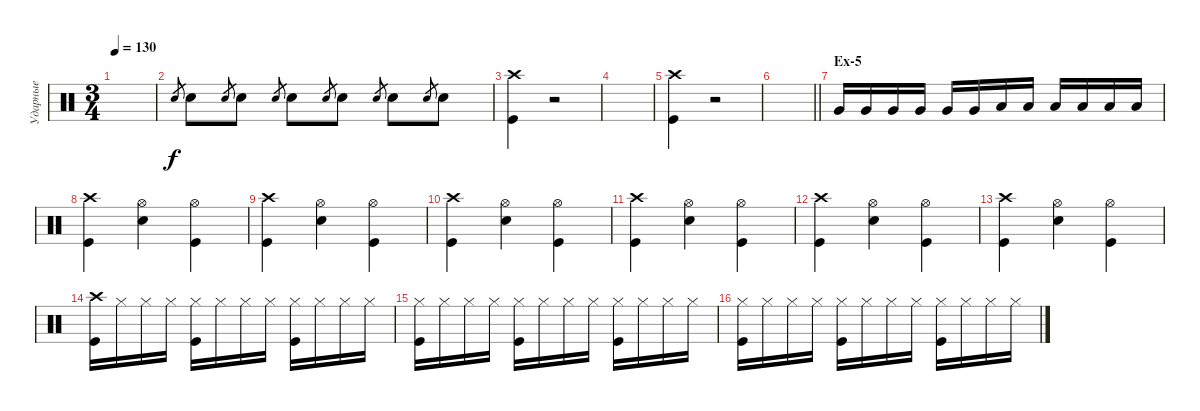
\track ("Ударные" "Ударные") {instrument percussion}
\staff {score}
\articulation defaults
\ts (3 4)
\tempo 130
\clef neutral
\ks c
|
"Snare (hit) 2".8{gr} "Snare (hit) 2".8{volume 9} "Snare (hit) 2".8{gr} "Snare (hit) 2".8{volume 16} "Snare (hit) 2".8{gr} "Snare (hit) 2".8 "Snare (hit) 2".8{gr} "Snare (hit) 2".8 "Snare (hit) 2".8{gr} "Snare (hit) 2".8 "Snare (hit) 2".8{gr} "Snare (hit) 2".8 |
("Crash high (hit)" "Kick (hit)").4 r.2 |
|
("Kick (hit)" "Crash high (hit)").4 r.2 |
\barLineRight lightlight
|
\section ("" "Ex-5")
"Very Low Tom (hit)".16{volume 11} "Very Low Tom (hit)".16{volume 16} "Very Low Tom (hit)".16 "Very Low Tom (hit)".16 "Very Low Tom (hit)".16 "Very Low Tom (hit)".16 "Low Floor Tom (hit)".16 "Low Floor Tom (hit)".16 "Low Floor Tom (hit)".16 "Low Floor Tom (hit)".16 "Low Floor Tom (hit)".16 "Low Floor Tom (hit)".16 |
("Crash high (hit)" "Kick (hit)").4 ("Hi-Hat (open)" "Snare (hit) 2").4 ("Hi-Hat (open)" "Kick (hit)").4 |
("Crash high (hit)" "Kick (hit)").4 ("Hi-Hat (open)" "Snare (hit) 2").4 ("Hi-Hat (open)" "Kick (hit)").4 |
("Crash high (hit)" "Kick (hit)").4 ("Hi-Hat (open)" "Snare (hit) 2").4 ("Hi-Hat (open)" "Kick (hit)").4 |
("Crash high (hit)" "Kick (hit)").4 ("Hi-Hat (open)" "Snare (hit) 2").4 ("Hi-Hat (open)" "Kick (hit)").4 |
("Crash high (hit)" "Kick (hit)").4 ("Hi-Hat (open)" "Snare (hit) 2").4 ("Hi-Hat (open)" "Kick (hit)").4 |
("Crash high (hit)" "Kick (hit)").4 ("Hi-Hat (open)" "Snare (hit) 2").4 ("Hi-Hat (open)" "Kick (hit)").4 |
("Crash high (hit)" "Kick (hit)").16 "Hi-Hat (closed)".16 "Hi-Hat (closed)".16 "Hi-Hat (closed)".16 ("Hi-Hat (closed)" "Kick (hit)").16 "Hi-Hat (closed)".16 "Hi-Hat (closed)".16 "Hi-Hat (closed)".16 ("Hi-Hat (closed)" "Kick (hit)").16 "Hi-Hat (closed)".16 "Hi-Hat (closed)".16 "Hi-Hat (closed)".16 |
("Hi-Hat (closed)" "Kick (hit)").16 "Hi-Hat (closed)".16 "Hi-Hat (closed)".16 "Hi-Hat (closed)".16 ("Hi-Hat (closed)" "Kick (hit)").16 "Hi-Hat (closed)".16 "Hi-Hat (closed)".16 "Hi-Hat (closed)".16 ("Hi-Hat (closed)" "Kick (hit)").16 "Hi-Hat (closed)".16 "Hi-Hat (closed)".16 "Hi-Hat (closed)".16 |
("Hi-Hat (closed)" "Kick (hit)").16 "Hi-Hat (closed)".16 "Hi-Hat (closed)".16 "Hi-Hat (closed)".16 ("Hi-Hat (closed)" "Kick (hit)").16 "Hi-Hat (closed)".16 "Hi-Hat (closed)".16 "Hi-Hat (closed)".16 ("Hi-Hat (closed)" "Kick (hit)").16 "Hi-Hat (closed)".16 "Hi-Hat (closed)".16 "Hi-Hat (closed)".16
